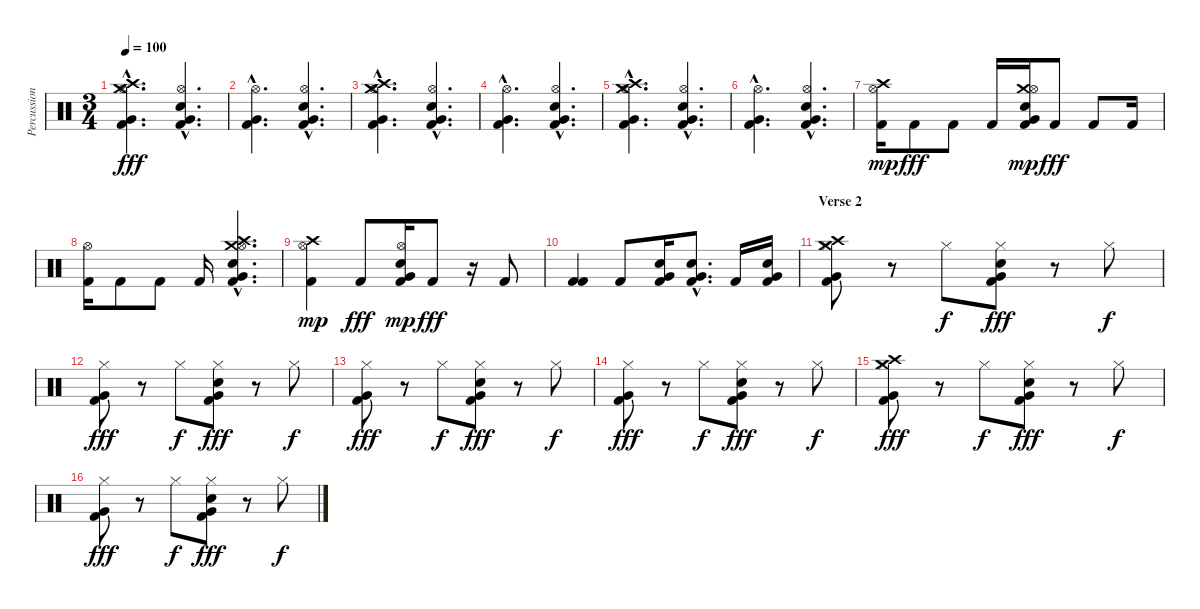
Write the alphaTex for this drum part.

\track ("Percussion" "Percussion") {instrument percussion}
\staff {score}
\articulation defaults
\ts (3 4)
\tempo 100
\clef neutral
\ks c
("Kick (hit) 2"{hac} "Very Low Tom (hit)"{hac} "Crash medium (hit)"{hac} "Crash high (hit)"{hac} "Hi-Hat (open)"{hac}).4{d dy fff} ("Snare (hit) 2"{hac} "Kick (hit) 2"{hac} "Very Low Tom (hit)"{hac} "Hi-Hat (open)"{hac}).4{d} |
("Kick (hit) 2"{hac} "Very Low Tom (hit)"{hac} "Hi-Hat (open)"{hac}).4{d} ("Snare (hit) 2"{hac} "Kick (hit) 2"{hac} "Very Low Tom (hit)"{hac} "Hi-Hat (open)"{hac}).4{d} |
("Kick (hit) 2"{hac} "Very Low Tom (hit)"{hac} "Crash medium (hit)"{hac} "Crash high (hit)"{hac} "Hi-Hat (open)"{hac}).4{d} ("Snare (hit) 2"{hac} "Kick (hit) 2"{hac} "Very Low Tom (hit)"{hac} "Hi-Hat (open)"{hac}).4{d} |
("Kick (hit) 2"{hac} "Very Low Tom (hit)"{hac} "Hi-Hat (open)"{hac}).4{d} ("Snare (hit) 2"{hac} "Kick (hit) 2"{hac} "Very Low Tom (hit)"{hac} "Hi-Hat (open)"{hac}).4{d} |
("Kick (hit) 2"{hac} "Very Low Tom (hit)"{hac} "Crash medium (hit)"{hac} "Crash high (hit)"{hac} "Hi-Hat (open)"{hac}).4{d} ("Snare (hit) 2"{hac} "Kick (hit) 2"{hac} "Very Low Tom (hit)"{hac} "Hi-Hat (open)"{hac}).4{d} |
("Kick (hit) 2"{hac} "Very Low Tom (hit)"{hac} "Hi-Hat (open)"{hac}).4{d} ("Snare (hit) 2"{hac} "Kick (hit) 2"{hac} "Very Low Tom (hit)"{hac} "Hi-Hat (open)"{hac}).4{d} |
("Kick (hit) 2" "Crash high (hit)" "Hi-Hat (open)").16{dy mp} "Kick (hit) 2".8{dy fff} "Kick (hit) 2".8 "Kick (hit) 2".16 ("Snare (hit) 2" "Kick (hit) 2" "Very Low Tom (hit)" "Crash medium (hit)" "Hi-Hat (open)").16{dy mp} "Kick (hit) 2".8{dy fff} "Kick (hit) 2".8 "Kick (hit) 2".16 |
("Kick (hit) 2" "Hi-Hat (open)").16 "Kick (hit) 2".8 "Kick (hit) 2".8 "Kick (hit) 2".16 ("Snare (hit) 2"{hac} "Kick (hit) 2"{hac} "Very Low Tom (hit)"{hac} "Crash medium (hit)"{hac} "Crash high (hit)"{hac} "Hi-Hat (open)"{hac}).4{d} |
("Kick (hit) 2" "Crash high (hit)" "Hi-Hat (open)").4{dy mp} "Kick (hit) 2".8{dy fff} ("Snare (hit) 2" "Kick (hit) 2" "Very Low Tom (hit)" "Hi-Hat (open)").16{dy mp} "Kick (hit) 2".8{dy fff} r.16 "Kick (hit) 2".8 |
("Kick (hit) 2" "Kick (hit) 2").4{bd 120} "Kick (hit) 2".8 ("Snare (hit) 2" "Kick (hit) 2" "Very Low Tom (hit)").16 ("Snare (hit) 2"{hac} "Kick (hit) 2"{hac} "Very Low Tom (hit)"{hac}).8{d} "Kick (hit) 2".16 ("Snare (hit) 2" "Kick (hit) 2" "Very Low Tom (hit)").16 |
\section ("" "Verse 2")
("Very Low Tom (hit)" "Kick (hit) 2" "Crash medium (hit)" "Crash high (hit)" "Hi-Hat (closed)").8 r.8 "Hi-Hat (closed)".8{dy f} ("Snare (hit) 2" "Kick (hit) 2" "Very Low Tom (hit)" "Hi-Hat (closed)").8{dy fff} r.8 "Hi-Hat (closed)".8{dy f} |
("Very Low Tom (hit)" "Kick (hit) 2" "Hi-Hat (closed)").8{dy fff} r.8 "Hi-Hat (closed)".8{dy f} ("Snare (hit) 2" "Kick (hit) 2" "Very Low Tom (hit)" "Hi-Hat (closed)").8{dy fff} r.8 "Hi-Hat (closed)".8{dy f} |
("Very Low Tom (hit)" "Kick (hit) 2" "Hi-Hat (closed)").8{dy fff} r.8 "Hi-Hat (closed)".8{dy f} ("Snare (hit) 2" "Kick (hit) 2" "Very Low Tom (hit)" "Hi-Hat (closed)").8{dy fff} r.8 "Hi-Hat (closed)".8{dy f} |
("Very Low Tom (hit)" "Kick (hit) 2" "Hi-Hat (closed)").8{dy fff} r.8 "Hi-Hat (closed)".8{dy f} ("Snare (hit) 2" "Kick (hit) 2" "Very Low Tom (hit)" "Hi-Hat (closed)").8{dy fff} r.8 "Hi-Hat (closed)".8{dy f} |
("Very Low Tom (hit)" "Kick (hit) 2" "Crash medium (hit)" "Crash high (hit)" "Hi-Hat (closed)").8{dy fff} r.8 "Hi-Hat (closed)".8{dy f} ("Snare (hit) 2" "Kick (hit) 2" "Very Low Tom (hit)" "Hi-Hat (closed)").8{dy fff} r.8 "Hi-Hat (closed)".8{dy f} |
("Very Low Tom (hit)" "Kick (hit) 2" "Hi-Hat (closed)").8{dy fff} r.8 "Hi-Hat (closed)".8{dy f} ("Snare (hit) 2" "Kick (hit) 2" "Very Low Tom (hit)" "Hi-Hat (closed)").8{dy fff} r.8 "Hi-Hat (closed)".8{dy f}
